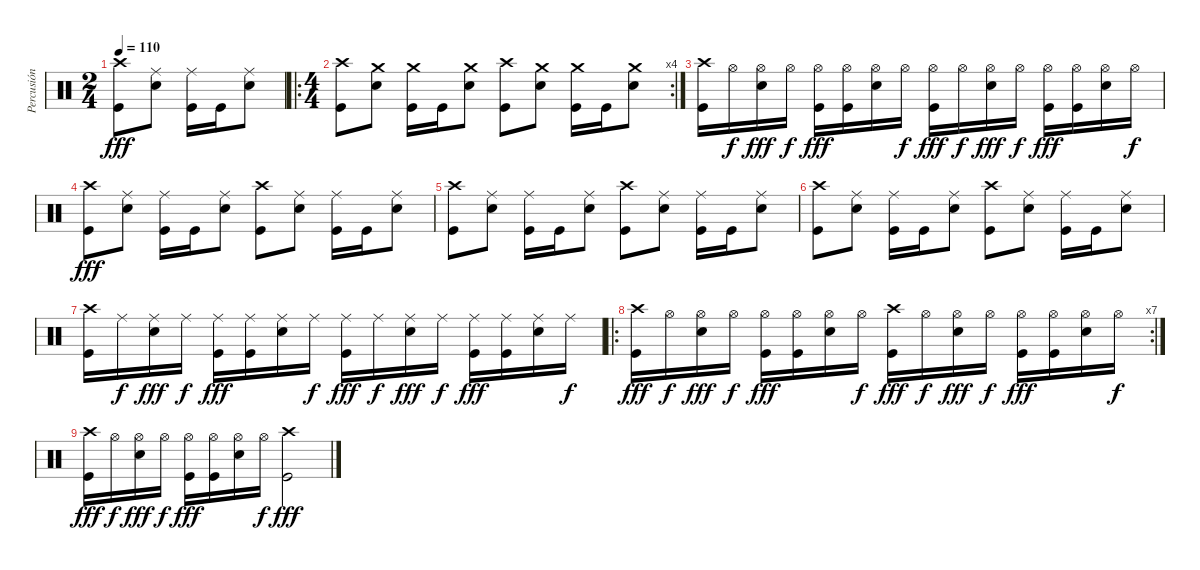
\track ("Percusión" "Percusión") {instrument percussion}
\staff {score}
\articulation defaults
\ts (2 4)
\tempo 110
\clef neutral
\ks c
("Crash high (hit)" "Kick (hit)").8{dy fff} ("Ride (middle)" "Electric Snare (hit)").8 ("Ride (middle)" "Kick (hit)").16 "Kick (hit)".16 ("Ride (middle)" "Electric Snare (hit)").8 |
\ro
\rc 4
\ts (4 4)
("Crash high (hit)" "Kick (hit)").8 ("Crash medium (hit)" "Electric Snare (hit)").8 ("Crash medium (hit)" "Kick (hit)").16 "Kick (hit)".16 ("Crash medium (hit)" "Electric Snare (hit)").8 ("Crash high (hit)" "Kick (hit)").8 ("Crash medium (hit)" "Electric Snare (hit)").8 ("Crash medium (hit)" "Kick (hit)").16 "Kick (hit)".16 ("Crash medium (hit)" "Electric Snare (hit)").8 |
("Crash high (hit)" "Kick (hit)").16 "Hi-Hat (open)".16{dy f} ("Hi-Hat (open)" "Electric Snare (hit)").16{dy fff} "Hi-Hat (open)".16{dy f} ("Hi-Hat (open)" "Kick (hit)").16{dy fff} ("Hi-Hat (open)" "Kick (hit)").16 ("Hi-Hat (open)" "Electric Snare (hit)").16 "Hi-Hat (open)".16{dy f} ("Hi-Hat (open)" "Kick (hit)").16{dy fff} "Hi-Hat (open)".16{dy f} ("Hi-Hat (open)" "Electric Snare (hit)").16{dy fff} "Hi-Hat (open)".16{dy f} ("Hi-Hat (open)" "Kick (hit)").16{dy fff} ("Hi-Hat (open)" "Kick (hit)").16 ("Hi-Hat (open)" "Electric Snare (hit)").16 "Hi-Hat (open)".16{dy f} |
("Crash high (hit)" "Kick (hit)").8{dy fff} ("Ride (middle)" "Electric Snare (hit)").8 ("Ride (middle)" "Kick (hit)").16 "Kick (hit)".16 ("Ride (middle)" "Electric Snare (hit)").8 ("Crash high (hit)" "Kick (hit)").8 ("Ride (middle)" "Electric Snare (hit)").8 ("Ride (middle)" "Kick (hit)").16 "Kick (hit)".16 ("Ride (middle)" "Electric Snare (hit)").8 |
("Crash high (hit)" "Kick (hit)").8 ("Ride (middle)" "Electric Snare (hit)").8 ("Ride (middle)" "Kick (hit)").16 "Kick (hit)".16 ("Ride (middle)" "Electric Snare (hit)").8 ("Crash high (hit)" "Kick (hit)").8 ("Ride (middle)" "Electric Snare (hit)").8 ("Ride (middle)" "Kick (hit)").16 "Kick (hit)".16 ("Ride (middle)" "Electric Snare (hit)").8 |
("Crash high (hit)" "Kick (hit)").8 ("Ride (middle)" "Electric Snare (hit)").8 ("Ride (middle)" "Kick (hit)").16 "Kick (hit)".16 ("Ride (middle)" "Electric Snare (hit)").8 ("Crash high (hit)" "Kick (hit)").8 ("Ride (middle)" "Electric Snare (hit)").8 ("Ride (middle)" "Kick (hit)").16 "Kick (hit)".16 ("Ride (middle)" "Electric Snare (hit)").8 |
("Crash high (hit)" "Kick (hit)").16 "Ride (middle)".16{dy f} ("Ride (middle)" "Electric Snare (hit)").16{dy fff} "Ride (middle)".16{dy f} ("Ride (middle)" "Kick (hit)").16{dy fff} ("Ride (middle)" "Kick (hit)").16 ("Ride (middle)" "Electric Snare (hit)").16 "Ride (middle)".16{dy f} ("Ride (middle)" "Kick (hit)").16{dy fff} "Ride (middle)".16{dy f} ("Ride (middle)" "Electric Snare (hit)").16{dy fff} "Ride (middle)".16{dy f} ("Ride (middle)" "Kick (hit)").16{dy fff} ("Ride (middle)" "Kick (hit)").16 ("Ride (middle)" "Electric Snare (hit)").16 "Ride (middle)".16{dy f} |
\ro
\rc 7
("Crash high (hit)" "Kick (hit)").16{dy fff} "Hi-Hat (open)".16{dy f} ("Hi-Hat (open)" "Electric Snare (hit)").16{dy fff} "Hi-Hat (open)".16{dy f} ("Hi-Hat (open)" "Kick (hit)").16{dy fff} ("Hi-Hat (open)" "Kick (hit)").16 ("Hi-Hat (open)" "Electric Snare (hit)").16 "Hi-Hat (open)".16{dy f} ("Crash high (hit)" "Kick (hit)").16{dy fff} "Hi-Hat (open)".16{dy f} ("Hi-Hat (open)" "Electric Snare (hit)").16{dy fff} "Hi-Hat (open)".16{dy f} ("Hi-Hat (open)" "Kick (hit)").16{dy fff} ("Hi-Hat (open)" "Kick (hit)").16 ("Hi-Hat (open)" "Electric Snare (hit)").16 "Hi-Hat (open)".16{dy f} |
("Crash high (hit)" "Kick (hit)").16{dy fff} "Hi-Hat (open)".16{dy f} ("Hi-Hat (open)" "Electric Snare (hit)").16{dy fff} "Hi-Hat (open)".16{dy f} ("Hi-Hat (open)" "Kick (hit)").16{dy fff} ("Hi-Hat (open)" "Kick (hit)").16 ("Hi-Hat (open)" "Electric Snare (hit)").16 "Hi-Hat (open)".16{dy f} ("Crash high (hit)" "Kick (hit)").2{dy fff}
